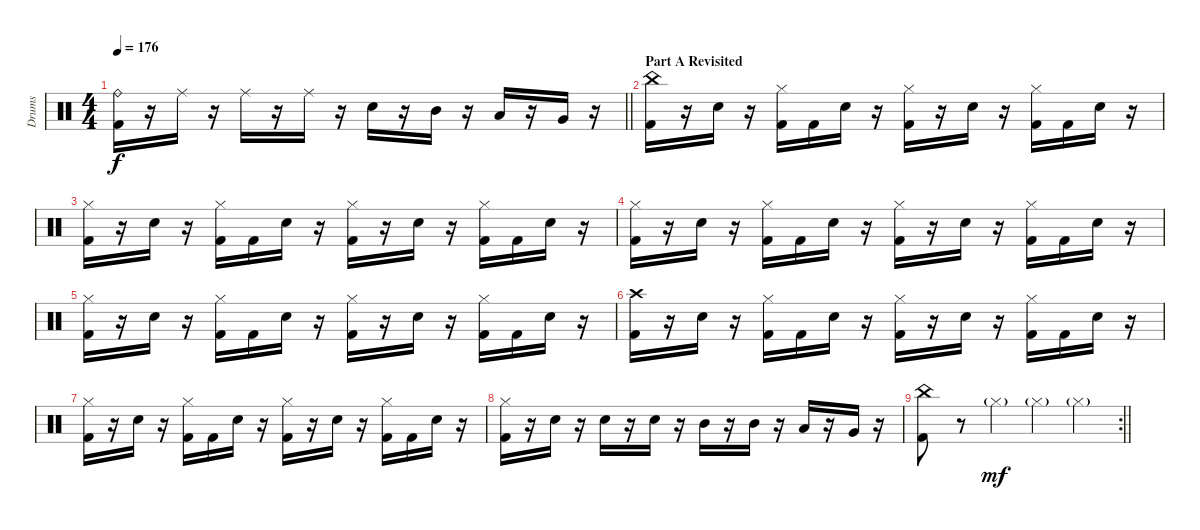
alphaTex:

\track ("Drums" "Drums") {instrument percussion}
\staff {score}
\articulation defaults
\ts (4 4)
\tempo 176
\clef neutral
\barLineRight lightlight
\ks c
("Ride (bell)" "Kick (hit) 2").16{dy f} r.16 "Ride (middle)".16 r.16 "Ride (middle)".16 r.16 "Ride (middle)".16 r.16 "Snare (hit) 2".16 r.16 "Mid Tom (hit)".16 r.16 "Low Tom (hit)".16 r.16 "Very Low Tom (hit)".16 r.16 |
\section ("" "Part A Revisited")
("China (hit)" "Kick (hit) 2").16 r.16 "Snare (hit) 2".16 r.16 ("Hi-Hat (closed)" "Kick (hit) 2").16 "Kick (hit) 2".16 "Snare (hit) 2".16 r.16 ("Hi-Hat (closed)" "Kick (hit) 2").16 r.16 "Snare (hit) 2".16 r.16 ("Hi-Hat (closed)" "Kick (hit) 2").16 "Kick (hit) 2".16 "Snare (hit) 2".16 r.16 |
("Hi-Hat (closed)" "Kick (hit) 2").16 r.16 "Snare (hit) 2".16 r.16 ("Hi-Hat (closed)" "Kick (hit) 2").16 "Kick (hit) 2".16 "Snare (hit) 2".16 r.16 ("Hi-Hat (closed)" "Kick (hit) 2").16 r.16 "Snare (hit) 2".16 r.16 ("Hi-Hat (closed)" "Kick (hit) 2").16 "Kick (hit) 2".16 "Snare (hit) 2".16 r.16 |
("Hi-Hat (closed)" "Kick (hit) 2").16 r.16 "Snare (hit) 2".16 r.16 ("Hi-Hat (closed)" "Kick (hit) 2").16 "Kick (hit) 2".16 "Snare (hit) 2".16 r.16 ("Hi-Hat (closed)" "Kick (hit) 2").16 r.16 "Snare (hit) 2".16 r.16 ("Hi-Hat (closed)" "Kick (hit) 2").16 "Kick (hit) 2".16 "Snare (hit) 2".16 r.16 |
("Hi-Hat (closed)" "Kick (hit) 2").16 r.16 "Snare (hit) 2".16 r.16 ("Hi-Hat (closed)" "Kick (hit) 2").16 "Kick (hit) 2".16 "Snare (hit) 2".16 r.16 ("Hi-Hat (closed)" "Kick (hit) 2").16 r.16 "Snare (hit) 2".16 r.16 ("Hi-Hat (closed)" "Kick (hit) 2").16 "Kick (hit) 2".16 "Snare (hit) 2".16 r.16 |
("Crash high (hit)" "Kick (hit) 2").16 r.16 "Snare (hit) 2".16 r.16 ("Hi-Hat (closed)" "Kick (hit) 2").16 "Kick (hit) 2".16 "Snare (hit) 2".16 r.16 ("Hi-Hat (closed)" "Kick (hit) 2").16 r.16 "Snare (hit) 2".16 r.16 ("Hi-Hat (closed)" "Kick (hit) 2").16 "Kick (hit) 2".16 "Snare (hit) 2".16 r.16 |
("Hi-Hat (closed)" "Kick (hit) 2").16 r.16 "Snare (hit) 2".16 r.16 ("Hi-Hat (closed)" "Kick (hit) 2").16 "Kick (hit) 2".16 "Snare (hit) 2".16 r.16 ("Hi-Hat (closed)" "Kick (hit) 2").16 r.16 "Snare (hit) 2".16 r.16 ("Hi-Hat (closed)" "Kick (hit) 2").16 "Kick (hit) 2".16 "Snare (hit) 2".16 r.16 |
("Hi-Hat (closed)" "Kick (hit) 2").16 r.16 "Snare (hit) 2".16 r.16 "Snare (hit) 2".16 r.16 "Snare (hit) 2".16 r.16 "Mid Tom (hit)".16 r.16 "Mid Tom (hit)".16 r.16 "Low Tom (hit)".16 r.16 "Very Low Tom (hit)".16 r.16 |
\rc 2
\barLineRight lightlight
("China (hit)" "Kick (hit) 2").8 r.8 "Hi-Hat (closed)"{g}.4{dy mf} "Hi-Hat (closed)"{g}.4 "Hi-Hat (closed)"{g}.4
